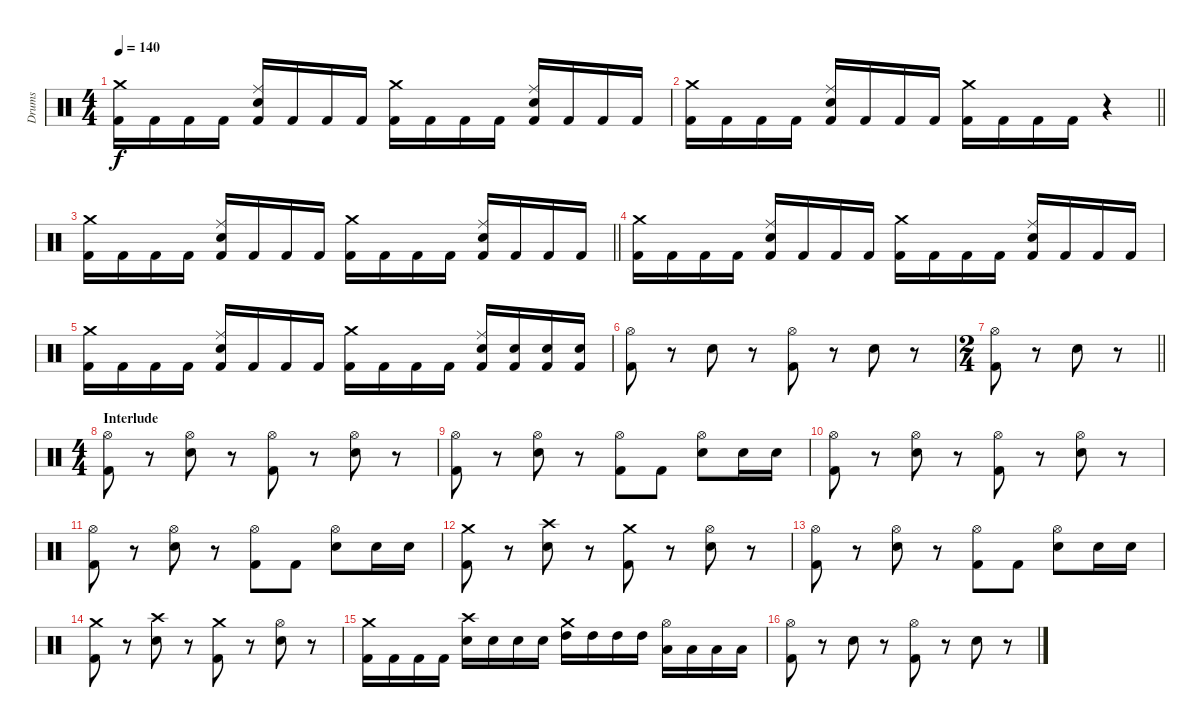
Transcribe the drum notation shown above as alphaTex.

\track ("Drums" "Drums") {instrument percussion}
\staff {score}
\articulation defaults
\ts (4 4)
\tempo 140
\clef neutral
\ks c
("Crash medium (hit)" "Kick (hit) 2").16{dy f} "Kick (hit) 2".16 "Kick (hit) 2".16 "Kick (hit) 2".16 ("Ride (middle)" "Snare (hit) 2" "Kick (hit) 2").16 "Kick (hit) 2".16 "Kick (hit) 2".16 "Kick (hit) 2".16 ("Crash medium (hit)" "Kick (hit) 2").16 "Kick (hit) 2".16 "Kick (hit) 2".16 "Kick (hit) 2".16 ("Ride (middle)" "Snare (hit) 2" "Kick (hit) 2").16 "Kick (hit) 2".16 "Kick (hit) 2".16 "Kick (hit) 2".16 |
\barLineRight lightlight
("Crash medium (hit)" "Kick (hit) 2").16 "Kick (hit) 2".16 "Kick (hit) 2".16 "Kick (hit) 2".16 ("Ride (middle)" "Snare (hit) 2" "Kick (hit) 2").16 "Kick (hit) 2".16 "Kick (hit) 2".16 "Kick (hit) 2".16 ("Crash medium (hit)" "Kick (hit) 2").16 "Kick (hit) 2".16 "Kick (hit) 2".16 "Kick (hit) 2".16 r.4 |
\barLineRight lightlight
("Crash medium (hit)" "Kick (hit) 2").16 "Kick (hit) 2".16 "Kick (hit) 2".16 "Kick (hit) 2".16 ("Ride (middle)" "Snare (hit) 2" "Kick (hit) 2").16 "Kick (hit) 2".16 "Kick (hit) 2".16 "Kick (hit) 2".16 ("Crash medium (hit)" "Kick (hit) 2").16 "Kick (hit) 2".16 "Kick (hit) 2".16 "Kick (hit) 2".16 ("Ride (middle)" "Snare (hit) 2" "Kick (hit) 2").16 "Kick (hit) 2".16 "Kick (hit) 2".16 "Kick (hit) 2".16 |
("Crash medium (hit)" "Kick (hit) 2").16 "Kick (hit) 2".16 "Kick (hit) 2".16 "Kick (hit) 2".16 ("Ride (middle)" "Snare (hit) 2" "Kick (hit) 2").16 "Kick (hit) 2".16 "Kick (hit) 2".16 "Kick (hit) 2".16 ("Crash medium (hit)" "Kick (hit) 2").16 "Kick (hit) 2".16 "Kick (hit) 2".16 "Kick (hit) 2".16 ("Ride (middle)" "Snare (hit) 2" "Kick (hit) 2").16 "Kick (hit) 2".16 "Kick (hit) 2".16 "Kick (hit) 2".16 |
("Crash medium (hit)" "Kick (hit) 2").16 "Kick (hit) 2".16 "Kick (hit) 2".16 "Kick (hit) 2".16 ("Ride (middle)" "Snare (hit) 2" "Kick (hit) 2").16 "Kick (hit) 2".16 "Kick (hit) 2".16 "Kick (hit) 2".16 ("Crash medium (hit)" "Kick (hit) 2").16 "Kick (hit) 2".16 "Kick (hit) 2".16 "Kick (hit) 2".16 ("Ride (middle)" "Snare (hit) 2" "Kick (hit) 2").16 ("Snare (hit) 2" "Kick (hit) 2").16 ("Snare (hit) 2" "Kick (hit) 2").16 ("Snare (hit) 2" "Kick (hit) 2").16 |
("Hi-Hat (open)" "Kick (hit) 2").8 r.8 "Snare (hit) 2".8 r.8 ("Hi-Hat (open)" "Kick (hit) 2").8 r.8 "Snare (hit) 2".8 r.8 |
\ts (2 4)
\barLineRight lightlight
("Hi-Hat (open)" "Kick (hit) 2").8 r.8 "Snare (hit) 2".8 r.8 |
\ts (4 4)
\section ("" "Interlude")
("Hi-Hat (open)" "Kick (hit) 2").8 r.8 ("Hi-Hat (open)" "Snare (hit) 2").8 r.8 ("Hi-Hat (open)" "Kick (hit) 2").8 r.8 ("Hi-Hat (open)" "Snare (hit) 2").8 r.8 |
("Hi-Hat (open)" "Kick (hit) 2").8 r.8 ("Hi-Hat (open)" "Snare (hit) 2").8 r.8 ("Hi-Hat (open)" "Kick (hit) 2").8 "Kick (hit) 2".8 ("Hi-Hat (open)" "Snare (hit) 2").8 "Snare (hit) 2".16 "Snare (hit) 2".16 |
("Hi-Hat (open)" "Kick (hit) 2").8 r.8 ("Hi-Hat (open)" "Snare (hit) 2").8 r.8 ("Hi-Hat (open)" "Kick (hit) 2").8 r.8 ("Hi-Hat (open)" "Snare (hit) 2").8 r.8 |
("Hi-Hat (open)" "Kick (hit) 2").8 r.8 ("Hi-Hat (open)" "Snare (hit) 2").8 r.8 ("Hi-Hat (open)" "Kick (hit) 2").8 "Kick (hit) 2".8 ("Hi-Hat (open)" "Snare (hit) 2").8 "Snare (hit) 2".16 "Snare (hit) 2".16 |
("Crash medium (hit)" "Kick (hit) 2").8 r.8 ("Crash high (hit)" "Snare (hit) 2").8 r.8 ("Crash medium (hit)" "Kick (hit) 2").8 r.8 ("Hi-Hat (open)" "Snare (hit) 2").8 r.8 |
("Hi-Hat (open)" "Kick (hit) 2").8 r.8 ("Hi-Hat (open)" "Snare (hit) 2").8 r.8 ("Hi-Hat (open)" "Kick (hit) 2").8 "Kick (hit) 2".8 ("Hi-Hat (open)" "Snare (hit) 2").8 "Snare (hit) 2".16 "Snare (hit) 2".16 |
("Crash medium (hit)" "Kick (hit) 2").8 r.8 ("Crash high (hit)" "Snare (hit) 2").8 r.8 ("Crash medium (hit)" "Kick (hit) 2").8 r.8 ("Hi-Hat (open)" "Snare (hit) 2").8 r.8 |
("Crash medium (hit)" "Kick (hit) 2").16 "Kick (hit) 2".16 "Kick (hit) 2".16 "Kick (hit) 2".16 ("Crash high (hit)" "Snare (hit) 2").16 "Snare (hit) 2".16 "Snare (hit) 2".16 "Snare (hit) 2".16 ("Crash medium (hit)" "High Tom (hit)").16 "High Tom (hit)".16 "High Tom (hit)".16 "High Tom (hit)".16 ("Hi-Hat (open)" "Low Tom (hit)").16 "Low Tom (hit)".16 "Low Tom (hit)".16 "Low Tom (hit)".16 |
("Hi-Hat (open)" "Kick (hit) 2").8 r.8 "Snare (hit) 2".8 r.8 ("Hi-Hat (open)" "Kick (hit) 2").8 r.8 "Snare (hit) 2".8 r.8
